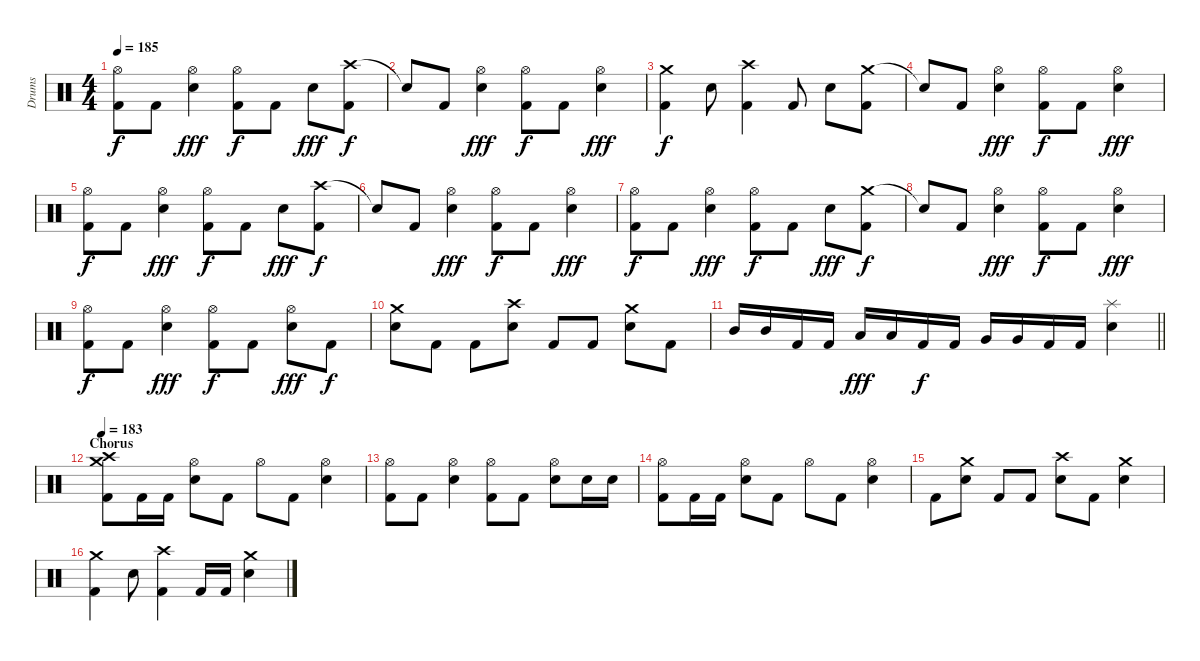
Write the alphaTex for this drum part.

\track ("Drums" "Drums") {instrument percussion}
\staff {score}
\articulation defaults
\ts (4 4)
\tempo 185
\clef neutral
\ks c
("Hi-Hat (open)" "Kick (hit) 2").8{dy f} "Kick (hit) 2".8 ("Hi-Hat (open)" "Electric Snare (hit)").4{dy fff} ("Hi-Hat (open)" "Kick (hit) 2").8{dy f} "Kick (hit) 2".8 "Electric Snare (hit)".8{dy fff} ("Crash high (hit)" "Kick (hit) 2").8{dy f} |
"Snare (hit)"{t}.8 "Kick (hit) 2".8 ("Hi-Hat (open)" "Electric Snare (hit)").4{dy fff} ("Hi-Hat (open)" "Kick (hit) 2").8{dy f} "Kick (hit) 2".8 ("Hi-Hat (open)" "Electric Snare (hit)").4{dy fff} |
("Crash medium (hit)" "Kick (hit) 2").4{dy f} "Electric Snare (hit)".8 ("Crash high (hit)" "Kick (hit) 2").4 "Kick (hit) 2".8 "Electric Snare (hit)".8 ("Crash medium (hit)" "Kick (hit) 2").8 |
"Snare (hit)"{t}.8 "Kick (hit) 2".8 ("Hi-Hat (open)" "Electric Snare (hit)").4{dy fff} ("Hi-Hat (open)" "Kick (hit) 2").8{dy f} "Kick (hit) 2".8 ("Hi-Hat (open)" "Electric Snare (hit)").4{dy fff} |
("Hi-Hat (open)" "Kick (hit) 2").8{dy f} "Kick (hit) 2".8 ("Hi-Hat (open)" "Electric Snare (hit)").4{dy fff} ("Hi-Hat (open)" "Kick (hit) 2").8{dy f} "Kick (hit) 2".8 "Electric Snare (hit)".8{dy fff} ("Crash high (hit)" "Kick (hit) 2").8{dy f} |
"Snare (hit)"{t}.8 "Kick (hit) 2".8 ("Hi-Hat (open)" "Electric Snare (hit)").4{dy fff} ("Hi-Hat (open)" "Kick (hit) 2").8{dy f} "Kick (hit) 2".8 ("Hi-Hat (open)" "Electric Snare (hit)").4{dy fff} |
("Hi-Hat (open)" "Kick (hit) 2").8{dy f} "Kick (hit) 2".8 ("Hi-Hat (open)" "Electric Snare (hit)").4{dy fff} ("Hi-Hat (open)" "Kick (hit) 2").8{dy f} "Kick (hit) 2".8 "Electric Snare (hit)".8{dy fff} ("Crash medium (hit)" "Kick (hit) 2").8{dy f} |
"Snare (hit)"{t}.8 "Kick (hit) 2".8 ("Hi-Hat (open)" "Electric Snare (hit)").4{dy fff} ("Hi-Hat (open)" "Kick (hit) 2").8{dy f} "Kick (hit) 2".8 ("Hi-Hat (open)" "Electric Snare (hit)").4{dy fff} |
("Hi-Hat (open)" "Kick (hit) 2").8{dy f} "Kick (hit) 2".8 ("Hi-Hat (open)" "Electric Snare (hit)").4{dy fff} ("Hi-Hat (open)" "Kick (hit) 2").8{dy f} "Kick (hit) 2".8 ("Hi-Hat (open)" "Electric Snare (hit)").8{dy fff} "Kick (hit) 2".8{dy f} |
("Crash medium (hit)" "Electric Snare (hit)").8 "Kick (hit) 2".8 "Kick (hit) 2".8 ("Crash high (hit)" "Electric Snare (hit)").8 "Kick (hit) 2".8 "Kick (hit) 2".8 ("Crash medium (hit)" "Electric Snare (hit)").8 "Kick (hit) 2".8 |
\barLineRight lightlight "Mid Tom (hit)".16 "Mid Tom (hit)".16 "Kick (hit) 2".16 "Kick (hit) 2".16 "Low Tom (hit)".16{dy fff} "Low Tom (hit)".16 "Kick (hit) 2".16{dy f} "Kick (hit) 2".16 "Very Low Tom (hit)".16 "Very Low Tom (hit)".16 "Kick (hit) 2".16 "Kick (hit) 2".16
("Splash (hit)" "Electric Snare (hit)").4 |
\section ("" "Chorus")
\tempo 183
("Crash medium (hit)" "Crash high (hit)" "Kick (hit) 2").8 "Kick (hit) 2".16 "Kick (hit) 2".16 ("Hi-Hat (open)" "Electric Snare (hit)").8 "Kick (hit) 2".8 "Hi-Hat (open)".8 "Kick (hit) 2".8 ("Hi-Hat (open)" "Electric Snare (hit)").4 |
("Hi-Hat (open)" "Kick (hit) 2").8 "Kick (hit) 2".8 ("Hi-Hat (open)" "Electric Snare (hit)").4 ("Hi-Hat (open)" "Kick (hit) 2").8 "Kick (hit) 2".8 ("Hi-Hat (open)" "Electric Snare (hit)").8 "Electric Snare (hit)".16 "Electric Snare (hit)".16 |
("Hi-Hat (open)" "Kick (hit) 2").8 "Kick (hit) 2".16 "Kick (hit) 2".16 ("Hi-Hat (open)" "Electric Snare (hit)").8 "Kick (hit) 2".8 "Hi-Hat (open)".8 "Kick (hit) 2".8 ("Hi-Hat (open)" "Electric Snare (hit)").4 |
"Kick (hit) 2".8 ("Crash medium (hit)" "Electric Snare (hit)").8 "Kick (hit) 2".8 "Kick (hit) 2".8 ("Crash high (hit)" "Electric Snare (hit)").8 "Kick (hit) 2".8 ("Crash medium (hit)" "Electric Snare (hit)").4 |
("Crash medium (hit)" "Kick (hit) 2").4 "Electric Snare (hit)".8 ("Crash high (hit)" "Kick (hit) 2").4 "Kick (hit) 2".16 "Kick (hit) 2".16 ("Crash medium (hit)" "Electric Snare (hit)").4
